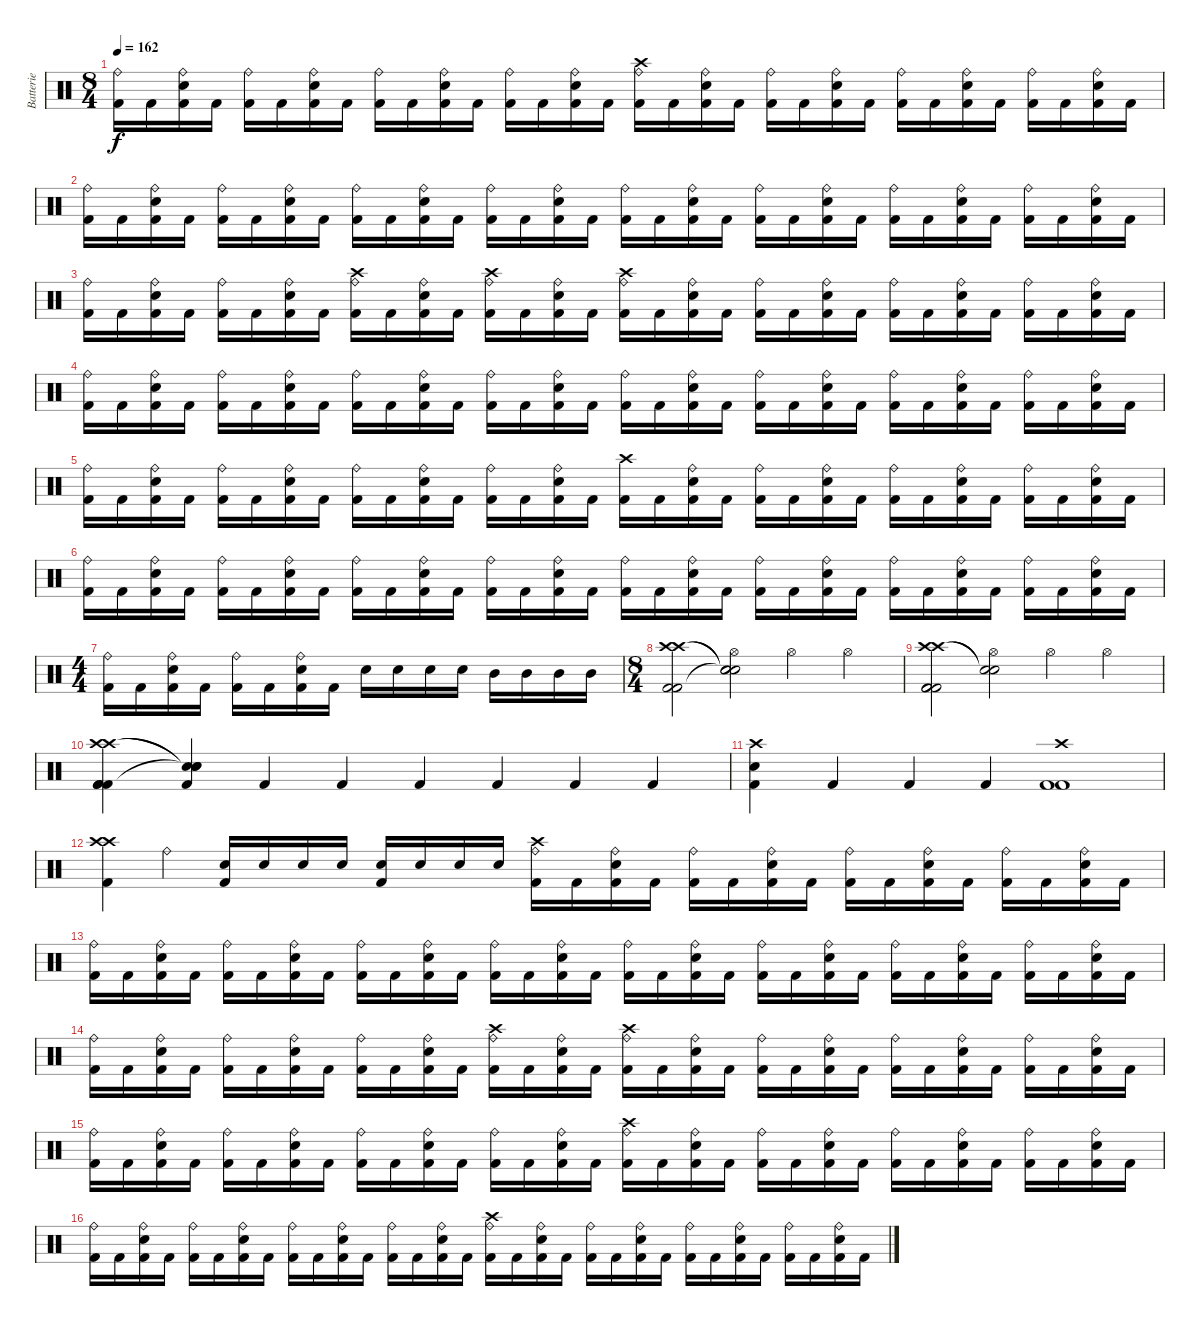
\track ("Batterie" "Batterie") {instrument percussion}
\staff {score}
\articulation defaults
\ts (8 4)
\tempo 162
\clef neutral
\ks c
("Ride (bell)" "Kick (hit) 2").16{dy f} "Kick (hit) 2".16 ("Ride (bell)" "Electric Snare (hit)" "Kick (hit) 2").16 "Kick (hit) 2".16 ("Ride (bell)" "Kick (hit) 2").16 "Kick (hit) 2".16 ("Ride (bell)" "Electric Snare (hit)" "Kick (hit) 2").16 "Kick (hit) 2".16 ("Ride (bell)" "Kick (hit) 2").16 "Kick (hit) 2".16 ("Ride (bell)" "Electric Snare (hit)" "Kick (hit) 2").16 "Kick (hit) 2".16 ("Ride (bell)" "Kick (hit) 2").16 "Kick (hit) 2".16 ("Ride (bell)" "Electric Snare (hit)" "Kick (hit) 2").16 "Kick (hit) 2".16 ("Crash high (hit)" "Ride (bell)" "Kick (hit) 2").16 "Kick (hit) 2".16 ("Ride (bell)" "Electric Snare (hit)" "Kick (hit) 2").16 "Kick (hit) 2".16 ("Ride (bell)" "Kick (hit) 2").16 "Kick (hit) 2".16 ("Ride (bell)" "Electric Snare (hit)" "Kick (hit) 2").16 "Kick (hit) 2".16 ("Ride (bell)" "Kick (hit) 2").16 "Kick (hit) 2".16 ("Ride (bell)" "Electric Snare (hit)" "Kick (hit) 2").16 "Kick (hit) 2".16 ("Ride (bell)" "Kick (hit) 2").16 "Kick (hit) 2".16 ("Ride (bell)" "Electric Snare (hit)" "Kick (hit) 2").16 "Kick (hit) 2".16 |
("Ride (bell)" "Kick (hit) 2").16 "Kick (hit) 2".16 ("Ride (bell)" "Electric Snare (hit)" "Kick (hit) 2").16 "Kick (hit) 2".16 ("Ride (bell)" "Kick (hit) 2").16 "Kick (hit) 2".16 ("Ride (bell)" "Electric Snare (hit)" "Kick (hit) 2").16 "Kick (hit) 2".16 ("Ride (bell)" "Kick (hit) 2").16 "Kick (hit) 2".16 ("Ride (bell)" "Electric Snare (hit)" "Kick (hit) 2").16 "Kick (hit) 2".16 ("Ride (bell)" "Kick (hit) 2").16 "Kick (hit) 2".16 ("Ride (bell)" "Electric Snare (hit)" "Kick (hit) 2").16 "Kick (hit) 2".16 ("Ride (bell)" "Kick (hit) 2").16 "Kick (hit) 2".16 ("Ride (bell)" "Electric Snare (hit)" "Kick (hit) 2").16 "Kick (hit) 2".16 ("Ride (bell)" "Kick (hit) 2").16 "Kick (hit) 2".16 ("Ride (bell)" "Electric Snare (hit)" "Kick (hit) 2").16 "Kick (hit) 2".16 ("Ride (bell)" "Kick (hit) 2").16 "Kick (hit) 2".16 ("Ride (bell)" "Electric Snare (hit)" "Kick (hit) 2").16 "Kick (hit) 2".16 ("Ride (bell)" "Kick (hit) 2").16 "Kick (hit) 2".16 ("Ride (bell)" "Electric Snare (hit)" "Kick (hit) 2").16 "Kick (hit) 2".16 |
("Ride (bell)" "Kick (hit) 2").16 "Kick (hit) 2".16 ("Ride (bell)" "Electric Snare (hit)" "Kick (hit) 2").16 "Kick (hit) 2".16 ("Ride (bell)" "Kick (hit) 2").16 "Kick (hit) 2".16 ("Ride (bell)" "Electric Snare (hit)" "Kick (hit) 2").16 "Kick (hit) 2".16 ("Crash high (hit)" "Ride (bell)" "Kick (hit) 2").16 "Kick (hit) 2".16 ("Ride (bell)" "Electric Snare (hit)" "Kick (hit) 2").16 "Kick (hit) 2".16 ("Crash high (hit)" "Ride (bell)" "Kick (hit) 2").16 "Kick (hit) 2".16 ("Ride (bell)" "Electric Snare (hit)" "Kick (hit) 2").16 "Kick (hit) 2".16 ("Crash high (hit)" "Ride (bell)" "Kick (hit) 2").16 "Kick (hit) 2".16 ("Ride (bell)" "Electric Snare (hit)" "Kick (hit) 2").16 "Kick (hit) 2".16 ("Ride (bell)" "Kick (hit) 2").16 "Kick (hit) 2".16 ("Ride (bell)" "Electric Snare (hit)" "Kick (hit) 2").16 "Kick (hit) 2".16 ("Ride (bell)" "Kick (hit) 2").16 "Kick (hit) 2".16 ("Ride (bell)" "Electric Snare (hit)" "Kick (hit) 2").16 "Kick (hit) 2".16 ("Ride (bell)" "Kick (hit) 2").16 "Kick (hit) 2".16 ("Ride (bell)" "Electric Snare (hit)" "Kick (hit) 2").16 "Kick (hit) 2".16 |
("Ride (bell)" "Kick (hit) 2").16 "Kick (hit) 2".16 ("Ride (bell)" "Electric Snare (hit)" "Kick (hit) 2").16 "Kick (hit) 2".16 ("Ride (bell)" "Kick (hit) 2").16 "Kick (hit) 2".16 ("Ride (bell)" "Electric Snare (hit)" "Kick (hit) 2").16 "Kick (hit) 2".16 ("Ride (bell)" "Kick (hit) 2").16 "Kick (hit) 2".16 ("Ride (bell)" "Electric Snare (hit)" "Kick (hit) 2").16 "Kick (hit) 2".16 ("Ride (bell)" "Kick (hit) 2").16 "Kick (hit) 2".16 ("Ride (bell)" "Electric Snare (hit)" "Kick (hit) 2").16 "Kick (hit) 2".16 ("Ride (bell)" "Kick (hit) 2").16 "Kick (hit) 2".16 ("Ride (bell)" "Electric Snare (hit)" "Kick (hit) 2").16 "Kick (hit) 2".16 ("Ride (bell)" "Kick (hit) 2").16 "Kick (hit) 2".16 ("Ride (bell)" "Electric Snare (hit)" "Kick (hit) 2").16 "Kick (hit) 2".16 ("Ride (bell)" "Kick (hit) 2").16 "Kick (hit) 2".16 ("Ride (bell)" "Electric Snare (hit)" "Kick (hit) 2").16 "Kick (hit) 2".16 ("Ride (bell)" "Kick (hit) 2").16 "Kick (hit) 2".16 ("Ride (bell)" "Electric Snare (hit)" "Kick (hit) 2").16 "Kick (hit) 2".16 |
("Ride (bell)" "Kick (hit) 2").16 "Kick (hit) 2".16 ("Ride (bell)" "Electric Snare (hit)" "Kick (hit) 2").16 "Kick (hit) 2".16 ("Ride (bell)" "Kick (hit) 2").16 "Kick (hit) 2".16 ("Ride (bell)" "Electric Snare (hit)" "Kick (hit) 2").16 "Kick (hit) 2".16 ("Ride (bell)" "Kick (hit) 2").16 "Kick (hit) 2".16 ("Ride (bell)" "Electric Snare (hit)" "Kick (hit) 2").16 "Kick (hit) 2".16 ("Ride (bell)" "Kick (hit) 2").16 "Kick (hit) 2".16 ("Ride (bell)" "Electric Snare (hit)" "Kick (hit) 2").16 "Kick (hit) 2".16 ("Crash high (hit)" "Kick (hit) 2").16 "Kick (hit) 2".16 ("Ride (bell)" "Electric Snare (hit)" "Kick (hit) 2").16 "Kick (hit) 2".16 ("Ride (bell)" "Kick (hit) 2").16 "Kick (hit) 2".16 ("Ride (bell)" "Electric Snare (hit)" "Kick (hit) 2").16 "Kick (hit) 2".16 ("Ride (bell)" "Kick (hit) 2").16 "Kick (hit) 2".16 ("Ride (bell)" "Electric Snare (hit)" "Kick (hit) 2").16 "Kick (hit) 2".16 ("Ride (bell)" "Kick (hit) 2").16 "Kick (hit) 2".16 ("Ride (bell)" "Electric Snare (hit)" "Kick (hit) 2").16 "Kick (hit) 2".16 |
("Ride (bell)" "Kick (hit) 2").16 "Kick (hit) 2".16 ("Ride (bell)" "Electric Snare (hit)" "Kick (hit) 2").16 "Kick (hit) 2".16 ("Ride (bell)" "Kick (hit) 2").16 "Kick (hit) 2".16 ("Ride (bell)" "Electric Snare (hit)" "Kick (hit) 2").16 "Kick (hit) 2".16 ("Ride (bell)" "Kick (hit) 2").16 "Kick (hit) 2".16 ("Ride (bell)" "Electric Snare (hit)" "Kick (hit) 2").16 "Kick (hit) 2".16 ("Ride (bell)" "Kick (hit) 2").16 "Kick (hit) 2".16 ("Ride (bell)" "Electric Snare (hit)" "Kick (hit) 2").16 "Kick (hit) 2".16 ("Ride (bell)" "Kick (hit) 2").16 "Kick (hit) 2".16 ("Ride (bell)" "Electric Snare (hit)" "Kick (hit) 2").16 "Kick (hit) 2".16 ("Ride (bell)" "Kick (hit) 2").16 "Kick (hit) 2".16 ("Ride (bell)" "Electric Snare (hit)" "Kick (hit) 2").16 "Kick (hit) 2".16 ("Ride (bell)" "Kick (hit) 2").16 "Kick (hit) 2".16 ("Ride (bell)" "Electric Snare (hit)" "Kick (hit) 2").16 "Kick (hit) 2".16 ("Ride (bell)" "Kick (hit) 2").16 "Kick (hit) 2".16 ("Ride (bell)" "Electric Snare (hit)" "Kick (hit) 2").16 "Kick (hit) 2".16 |
\ts (4 4)
("Ride (bell)" "Kick (hit) 2").16 "Kick (hit) 2".16 ("Ride (bell)" "Electric Snare (hit)" "Kick (hit) 2").16 "Kick (hit) 2".16 ("Ride (bell)" "Kick (hit) 2").16 "Kick (hit) 2".16 ("Ride (bell)" "Electric Snare (hit)" "Kick (hit) 2").16 "Kick (hit) 2".16 "Electric Snare (hit)".16 "Electric Snare (hit)".16 "Electric Snare (hit)".16 "Electric Snare (hit)".16 "Mid Tom (hit)".16 "Mid Tom (hit)".16 "Mid Tom (hit)".16 "Mid Tom (hit)".16 |
\ts (8 4)
("Crash high (hit)" "Crash high (hit)" "Kick (hit) 2" "Kick (hit) 2").2 ("Snare (hit)"{t} "Snare (hit)"{t} "Snare (hit)"{t} "Hi-Hat (open)").2 "Hi-Hat (open)".2 "Hi-Hat (open)".2 |
("Crash high (hit)" "Crash high (hit)" "Kick (hit) 2" "Kick (hit) 2" "Kick (hit) 2").2 ("Snare (hit)"{t} "Snare (hit)"{t} "Hi-Hat (open)").2 "Hi-Hat (open)".2 "Hi-Hat (open)".2 |
("Crash high (hit)" "Crash high (hit)" "Kick (hit) 2" "Kick (hit) 2" "Kick (hit) 2").4 ("Snare (hit)"{t} "Snare (hit)"{t} "Snare (hit)"{t} "Kick (hit) 2").4 "Kick (hit) 2".4 "Kick (hit) 2".4 "Kick (hit) 2".4 "Kick (hit) 2".4 "Kick (hit) 2".4 "Kick (hit) 2".4 |
("Electric Snare (hit)" "Crash high (hit)" "Kick (hit) 2").4 "Kick (hit) 2".4 "Kick (hit) 2".4 "Kick (hit) 2".4 ("Kick (hit) 2" "Crash high (hit)" "Kick (hit) 2").1 |
("Crash high (hit)" "Crash high (hit)" "Kick (hit) 2").4 "Ride (bell)".4 ("Electric Snare (hit)" "Kick (hit) 2").16 "Electric Snare (hit)".16 "Electric Snare (hit)".16 "Electric Snare (hit)".16 ("Electric Snare (hit)" "Kick (hit) 2").16 "Electric Snare (hit)".16 "Electric Snare (hit)".16 "Electric Snare (hit)".16 ("Crash high (hit)" "Ride (bell)" "Kick (hit) 2").16 "Kick (hit) 2".16 ("Ride (bell)" "Electric Snare (hit)" "Kick (hit) 2").16 "Kick (hit) 2".16 ("Ride (bell)" "Kick (hit) 2").16 "Kick (hit) 2".16 ("Ride (bell)" "Electric Snare (hit)" "Kick (hit) 2").16 "Kick (hit) 2".16 ("Ride (bell)" "Kick (hit) 2").16 "Kick (hit) 2".16 ("Ride (bell)" "Electric Snare (hit)" "Kick (hit) 2").16 "Kick (hit) 2".16 ("Ride (bell)" "Kick (hit) 2").16 "Kick (hit) 2".16 ("Ride (bell)" "Electric Snare (hit)" "Kick (hit) 2").16 "Kick (hit) 2".16 |
("Ride (bell)" "Kick (hit) 2").16 "Kick (hit) 2".16 ("Ride (bell)" "Electric Snare (hit)" "Kick (hit) 2").16 "Kick (hit) 2".16 ("Ride (bell)" "Kick (hit) 2").16 "Kick (hit) 2".16 ("Ride (bell)" "Electric Snare (hit)" "Kick (hit) 2").16 "Kick (hit) 2".16 ("Ride (bell)" "Kick (hit) 2").16 "Kick (hit) 2".16 ("Ride (bell)" "Electric Snare (hit)" "Kick (hit) 2").16 "Kick (hit) 2".16 ("Ride (bell)" "Kick (hit) 2").16 "Kick (hit) 2".16 ("Ride (bell)" "Electric Snare (hit)" "Kick (hit) 2").16 "Kick (hit) 2".16 ("Ride (bell)" "Kick (hit) 2").16 "Kick (hit) 2".16 ("Ride (bell)" "Electric Snare (hit)" "Kick (hit) 2").16 "Kick (hit) 2".16 ("Ride (bell)" "Kick (hit) 2").16 "Kick (hit) 2".16 ("Ride (bell)" "Electric Snare (hit)" "Kick (hit) 2").16 "Kick (hit) 2".16 ("Ride (bell)" "Kick (hit) 2").16 "Kick (hit) 2".16 ("Ride (bell)" "Electric Snare (hit)" "Kick (hit) 2").16 "Kick (hit) 2".16 ("Ride (bell)" "Kick (hit) 2").16 "Kick (hit) 2".16 ("Ride (bell)" "Electric Snare (hit)" "Kick (hit) 2").16 "Kick (hit) 2".16 |
("Ride (bell)" "Kick (hit) 2").16 "Kick (hit) 2".16 ("Ride (bell)" "Electric Snare (hit)" "Kick (hit) 2").16 "Kick (hit) 2".16 ("Ride (bell)" "Kick (hit) 2").16 "Kick (hit) 2".16 ("Ride (bell)" "Electric Snare (hit)" "Kick (hit) 2").16 "Kick (hit) 2".16 ("Ride (bell)" "Kick (hit) 2").16 "Kick (hit) 2".16 ("Ride (bell)" "Electric Snare (hit)" "Kick (hit) 2").16 "Kick (hit) 2".16 ("Crash high (hit)" "Ride (bell)" "Kick (hit) 2").16 "Kick (hit) 2".16 ("Ride (bell)" "Electric Snare (hit)" "Kick (hit) 2").16 "Kick (hit) 2".16 ("Crash high (hit)" "Ride (bell)" "Kick (hit) 2").16 "Kick (hit) 2".16 ("Ride (bell)" "Electric Snare (hit)" "Kick (hit) 2").16 "Kick (hit) 2".16 ("Ride (bell)" "Kick (hit) 2").16 "Kick (hit) 2".16 ("Ride (bell)" "Electric Snare (hit)" "Kick (hit) 2").16 "Kick (hit) 2".16 ("Ride (bell)" "Kick (hit) 2").16 "Kick (hit) 2".16 ("Ride (bell)" "Electric Snare (hit)" "Kick (hit) 2").16 "Kick (hit) 2".16 ("Ride (bell)" "Kick (hit) 2").16 "Kick (hit) 2".16 ("Ride (bell)" "Electric Snare (hit)" "Kick (hit) 2").16 "Kick (hit) 2".16 |
("Ride (bell)" "Kick (hit) 2").16 "Kick (hit) 2".16 ("Ride (bell)" "Electric Snare (hit)" "Kick (hit) 2").16 "Kick (hit) 2".16 ("Ride (bell)" "Kick (hit) 2").16 "Kick (hit) 2".16 ("Ride (bell)" "Electric Snare (hit)" "Kick (hit) 2").16 "Kick (hit) 2".16 ("Ride (bell)" "Kick (hit) 2").16 "Kick (hit) 2".16 ("Ride (bell)" "Electric Snare (hit)" "Kick (hit) 2").16 "Kick (hit) 2".16 ("Ride (bell)" "Kick (hit) 2").16 "Kick (hit) 2".16 ("Ride (bell)" "Electric Snare (hit)" "Kick (hit) 2").16 "Kick (hit) 2".16 ("Crash high (hit)" "Ride (bell)" "Kick (hit) 2").16 "Kick (hit) 2".16 ("Ride (bell)" "Electric Snare (hit)" "Kick (hit) 2").16 "Kick (hit) 2".16 ("Ride (bell)" "Kick (hit) 2").16 "Kick (hit) 2".16 ("Ride (bell)" "Electric Snare (hit)" "Kick (hit) 2").16 "Kick (hit) 2".16 ("Ride (bell)" "Kick (hit) 2").16 "Kick (hit) 2".16 ("Ride (bell)" "Electric Snare (hit)" "Kick (hit) 2").16 "Kick (hit) 2".16 ("Ride (bell)" "Kick (hit) 2").16 "Kick (hit) 2".16 ("Ride (bell)" "Electric Snare (hit)" "Kick (hit) 2").16 "Kick (hit) 2".16 |
("Ride (bell)" "Kick (hit) 2").16 "Kick (hit) 2".16 ("Ride (bell)" "Electric Snare (hit)" "Kick (hit) 2").16 "Kick (hit) 2".16 ("Ride (bell)" "Kick (hit) 2").16 "Kick (hit) 2".16 ("Ride (bell)" "Electric Snare (hit)" "Kick (hit) 2").16 "Kick (hit) 2".16 ("Ride (bell)" "Kick (hit) 2").16 "Kick (hit) 2".16 ("Ride (bell)" "Electric Snare (hit)" "Kick (hit) 2").16 "Kick (hit) 2".16 ("Ride (bell)" "Kick (hit) 2").16 "Kick (hit) 2".16 ("Ride (bell)" "Electric Snare (hit)" "Kick (hit) 2").16 "Kick (hit) 2".16 ("Crash high (hit)" "Ride (bell)" "Kick (hit) 2").16 "Kick (hit) 2".16 ("Ride (bell)" "Electric Snare (hit)" "Kick (hit) 2").16 "Kick (hit) 2".16 ("Ride (bell)" "Kick (hit) 2").16 "Kick (hit) 2".16 ("Ride (bell)" "Electric Snare (hit)" "Kick (hit) 2").16 "Kick (hit) 2".16 ("Ride (bell)" "Kick (hit) 2").16 "Kick (hit) 2".16 ("Ride (bell)" "Electric Snare (hit)" "Kick (hit) 2").16 "Kick (hit) 2".16 ("Ride (bell)" "Kick (hit) 2").16 "Kick (hit) 2".16 ("Ride (bell)" "Electric Snare (hit)" "Kick (hit) 2").16 "Kick (hit) 2".16
